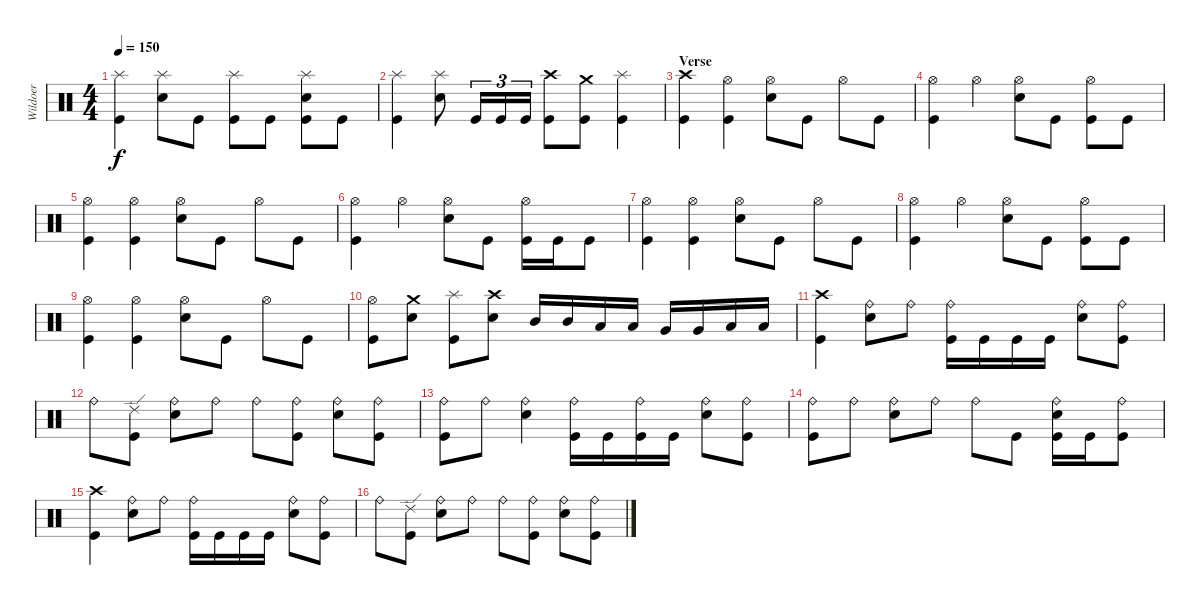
\track ("Wildoer" "Wildoer") {instrument percussion}
\staff {score}
\articulation defaults
\ts (4 4)
\tempo 150
\clef neutral
\ks c
("Splash (hit)" "Kick (hit)").4{dy f} ("Splash (hit)" "Electric Snare (hit)").8 "Kick (hit)".8 ("Splash (hit)" "Kick (hit)").8 "Kick (hit)".8 ("Splash (hit)" "Electric Snare (hit)" "Kick (hit)").8 "Kick (hit)".8 |
("Splash (hit)" "Kick (hit)").4 ("Splash (hit)" "Electric Snare (hit)").8 "Kick (hit)".16{tu (3 2)} "Kick (hit)".16{tu (3 2)} "Kick (hit)".16{tu (3 2)} ("Crash high (hit)" "Kick (hit)").8 ("Crash medium (hit)" "Kick (hit)").8 ("Splash (hit)" "Kick (hit)").4 |
\section ("" "Verse")
("Crash high (hit)" "Kick (hit)").4 ("Hi-Hat (open)" "Kick (hit)").4 ("Hi-Hat (open)" "Electric Snare (hit)").8 "Kick (hit)".8 "Hi-Hat (open)".8 "Kick (hit)".8 |
("Hi-Hat (open)" "Kick (hit)").4 "Hi-Hat (open)".4 ("Hi-Hat (open)" "Electric Snare (hit)").8 "Kick (hit)".8 ("Hi-Hat (open)" "Kick (hit)").8 "Kick (hit)".8 |
("Hi-Hat (open)" "Kick (hit)").4 ("Hi-Hat (open)" "Kick (hit)").4 ("Hi-Hat (open)" "Electric Snare (hit)").8 "Kick (hit)".8 "Hi-Hat (open)".8 "Kick (hit)".8 |
("Hi-Hat (open)" "Kick (hit)").4 "Hi-Hat (open)".4 ("Hi-Hat (open)" "Electric Snare (hit)").8 "Kick (hit)".8 ("Hi-Hat (open)" "Kick (hit)").16 "Kick (hit)".16 "Kick (hit)".8 |
("Hi-Hat (open)" "Kick (hit)").4 ("Hi-Hat (open)" "Kick (hit)").4 ("Hi-Hat (open)" "Electric Snare (hit)").8 "Kick (hit)".8 "Hi-Hat (open)".8 "Kick (hit)".8 |
("Hi-Hat (open)" "Kick (hit)").4 "Hi-Hat (open)".4 ("Hi-Hat (open)" "Electric Snare (hit)").8 "Kick (hit)".8 ("Hi-Hat (open)" "Kick (hit)").8 "Kick (hit)".8 |
("Hi-Hat (open)" "Kick (hit)").4 ("Hi-Hat (open)" "Kick (hit)").4 ("Hi-Hat (open)" "Electric Snare (hit)").8 "Kick (hit)".8 "Hi-Hat (open)".8 "Kick (hit)".8 |
("Hi-Hat (open)" "Kick (hit)").8 ("Crash medium (hit)" "Electric Snare (hit)").8 ("Splash (hit)" "Kick (hit)").8 ("Crash high (hit)" "Electric Snare (hit)").8 "Mid Tom (hit)".16 "Mid Tom (hit)".16 "Low Tom (hit)".16 "Low Tom (hit)".16 "Very Low Tom (hit)".16 "Very Low Tom (hit)".16 "Low Floor Tom (hit)".16 "Low Floor Tom (hit)".16 |
("Crash high (hit)" "Kick (hit)").4 ("Ride (bell)" "Electric Snare (hit)").8 "Ride (bell)".8 ("Ride (bell)" "Kick (hit)").16 "Kick (hit)".16 "Kick (hit)".16 "Kick (hit)".16 ("Ride (bell)" "Electric Snare (hit)").8 ("Ride (bell)" "Kick (hit)").8 |
"Ride (bell)".8 ("Ride (edge) 2" "Kick (hit)").8 ("Ride (bell)" "Electric Snare (hit)").8 "Ride (bell)".8 "Ride (bell)".8 ("Ride (bell)" "Kick (hit)").8 ("Ride (bell)" "Electric Snare (hit)").8 ("Ride (bell)" "Kick (hit)").8 |
("Ride (bell)" "Kick (hit)").8 "Ride (bell)".8 ("Ride (bell)" "Electric Snare (hit)").4 ("Ride (bell)" "Kick (hit)").16 "Kick (hit)".16 ("Ride (bell)" "Kick (hit)").16 "Kick (hit)".16 ("Ride (bell)" "Electric Snare (hit)").8 ("Ride (bell)" "Kick (hit)").8 |
("Ride (bell)" "Kick (hit)").8 "Ride (bell)".8 ("Ride (bell)" "Electric Snare (hit)").8 "Ride (bell)".8 "Ride (bell)".8 "Kick (hit)".8 ("Ride (bell)" "Electric Snare (hit)" "Kick (hit)").16 "Kick (hit)".16 ("Ride (bell)" "Kick (hit)").8 |
("Crash high (hit)" "Kick (hit)").4 ("Ride (bell)" "Electric Snare (hit)").8 "Ride (bell)".8 ("Ride (bell)" "Kick (hit)").16 "Kick (hit)".16 "Kick (hit)".16 "Kick (hit)".16 ("Ride (bell)" "Electric Snare (hit)").8 ("Ride (bell)" "Kick (hit)").8 |
"Ride (bell)".8 ("Ride (edge) 2" "Kick (hit)").8 ("Ride (bell)" "Electric Snare (hit)").8 "Ride (bell)".8 "Ride (bell)".8 ("Ride (bell)" "Kick (hit)").8 ("Ride (bell)" "Electric Snare (hit)").8 ("Ride (bell)" "Kick (hit)").8
